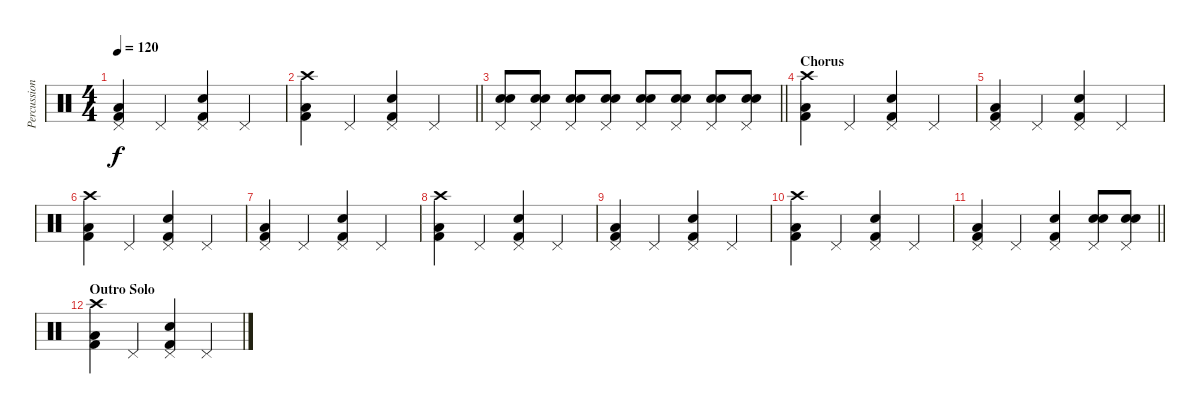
\track ("Percussion" "Percussion") {instrument percussion}
\staff {score}
\articulation defaults
\ts (4 4)
\tempo 120
\clef neutral
\ks c
("Pedal Hi-Hat (hit)" "Low Floor Tom (hit)" "Kick (hit) 2").4{dy f} "Pedal Hi-Hat (hit)".4 ("Pedal Hi-Hat (hit)" "Snare (hit) 2" "Kick (hit) 2").4 "Pedal Hi-Hat (hit)".4 |
\barLineRight lightlight
("Crash high (hit)" "Low Floor Tom (hit)" "Kick (hit) 2").4 "Pedal Hi-Hat (hit)".4 ("Pedal Hi-Hat (hit)" "Snare (hit) 2" "Kick (hit) 2").4 "Pedal Hi-Hat (hit)".4 |
\barLineRight lightlight
("Pedal Hi-Hat (hit)" "Snare (hit) 2" "Snare (hit)").8 ("Pedal Hi-Hat (hit)" "Snare (hit) 2" "Snare (hit)").8 ("Pedal Hi-Hat (hit)" "Snare (hit) 2" "Snare (hit)").8 ("Pedal Hi-Hat (hit)" "Snare (hit) 2" "Snare (hit)").8 ("Pedal Hi-Hat (hit)" "Snare (hit) 2" "Snare (hit)").8 ("Pedal Hi-Hat (hit)" "Snare (hit) 2" "Snare (hit)").8 ("Pedal Hi-Hat (hit)" "Snare (hit) 2" "Snare (hit)").8 ("Pedal Hi-Hat (hit)" "Snare (hit) 2" "Snare (hit)").8 |
\section ("" "Chorus")
("Crash high (hit)" "Low Floor Tom (hit)" "Kick (hit) 2").4 "Pedal Hi-Hat (hit)".4 ("Pedal Hi-Hat (hit)" "Snare (hit) 2" "Kick (hit) 2").4 "Pedal Hi-Hat (hit)".4 |
("Pedal Hi-Hat (hit)" "Low Floor Tom (hit)" "Kick (hit) 2").4 "Pedal Hi-Hat (hit)".4 ("Pedal Hi-Hat (hit)" "Snare (hit) 2" "Kick (hit) 2").4 "Pedal Hi-Hat (hit)".4 |
("Crash high (hit)" "Low Floor Tom (hit)" "Kick (hit) 2").4 "Pedal Hi-Hat (hit)".4 ("Pedal Hi-Hat (hit)" "Snare (hit) 2" "Kick (hit) 2").4 "Pedal Hi-Hat (hit)".4 |
("Pedal Hi-Hat (hit)" "Low Floor Tom (hit)" "Kick (hit) 2").4 "Pedal Hi-Hat (hit)".4 ("Pedal Hi-Hat (hit)" "Snare (hit) 2" "Kick (hit) 2").4 "Pedal Hi-Hat (hit)".4 |
("Crash high (hit)" "Low Floor Tom (hit)" "Kick (hit) 2").4 "Pedal Hi-Hat (hit)".4 ("Pedal Hi-Hat (hit)" "Snare (hit) 2" "Kick (hit) 2").4 "Pedal Hi-Hat (hit)".4 |
("Pedal Hi-Hat (hit)" "Low Floor Tom (hit)" "Kick (hit) 2").4 "Pedal Hi-Hat (hit)".4 ("Pedal Hi-Hat (hit)" "Snare (hit) 2" "Kick (hit) 2").4 "Pedal Hi-Hat (hit)".4 |
("Crash high (hit)" "Low Floor Tom (hit)" "Kick (hit) 2").4 "Pedal Hi-Hat (hit)".4 ("Pedal Hi-Hat (hit)" "Snare (hit) 2" "Kick (hit) 2").4 "Pedal Hi-Hat (hit)".4 |
\barLineRight lightlight
("Pedal Hi-Hat (hit)" "Low Floor Tom (hit)" "Kick (hit) 2").4 "Pedal Hi-Hat (hit)".4 ("Pedal Hi-Hat (hit)" "Snare (hit) 2" "Kick (hit) 2").4 ("Pedal Hi-Hat (hit)" "Snare (hit) 2" "Snare (hit)").8 ("Pedal Hi-Hat (hit)" "Snare (hit) 2" "Snare (hit)").8 |
\section ("" "Outro Solo")
("Crash high (hit)" "Low Floor Tom (hit)" "Kick (hit) 2").4 "Pedal Hi-Hat (hit)".4 ("Pedal Hi-Hat (hit)" "Snare (hit) 2" "Kick (hit) 2").4 "Pedal Hi-Hat (hit)".4
